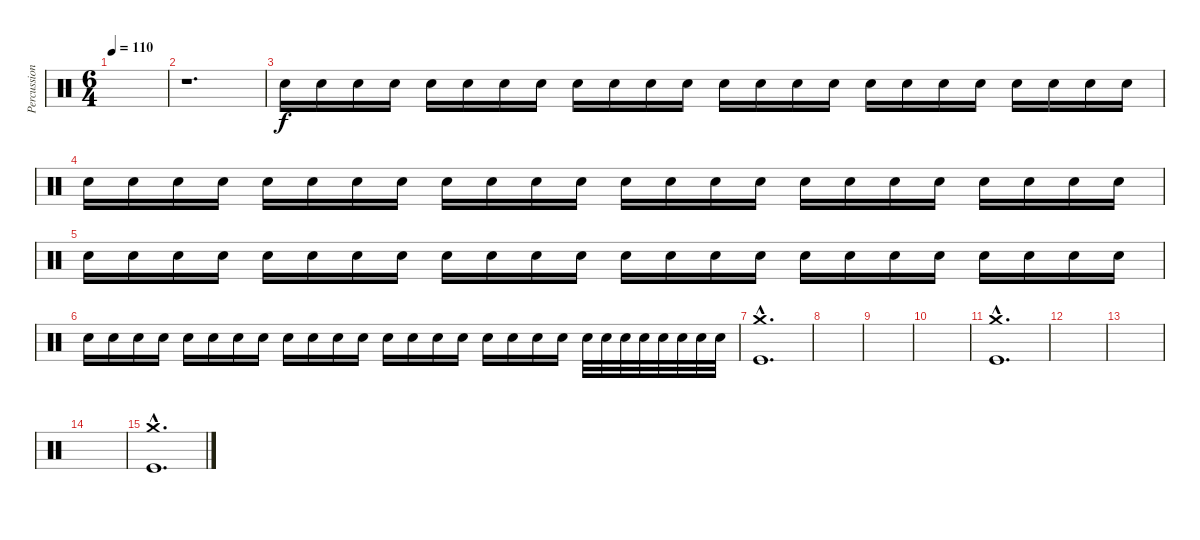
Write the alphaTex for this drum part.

\track ("Percussion" "Percussion") {instrument percussion}
\staff {score}
\articulation defaults
\ts (6 4)
\tempo 110
\clef neutral
\ks c
|
r.1{d volume 0} |
"Electric Snare (hit)".16{volume 4} "Electric Snare (hit)".16 "Electric Snare (hit)".16 "Electric Snare (hit)".16 "Electric Snare (hit)".16 "Electric Snare (hit)".16 "Electric Snare (hit)".16 "Electric Snare (hit)".16 "Electric Snare (hit)".16 "Electric Snare (hit)".16 "Electric Snare (hit)".16 "Electric Snare (hit)".16 "Electric Snare (hit)".16 "Electric Snare (hit)".16 "Electric Snare (hit)".16 "Electric Snare (hit)".16 "Electric Snare (hit)".16 "Electric Snare (hit)".16 "Electric Snare (hit)".16 "Electric Snare (hit)".16 "Electric Snare (hit)".16 "Electric Snare (hit)".16 "Electric Snare (hit)".16 "Electric Snare (hit)".16 |
"Electric Snare (hit)".16{volume 8} "Electric Snare (hit)".16 "Electric Snare (hit)".16 "Electric Snare (hit)".16 "Electric Snare (hit)".16 "Electric Snare (hit)".16 "Electric Snare (hit)".16 "Electric Snare (hit)".16 "Electric Snare (hit)".16 "Electric Snare (hit)".16 "Electric Snare (hit)".16 "Electric Snare (hit)".16 "Electric Snare (hit)".16 "Electric Snare (hit)".16 "Electric Snare (hit)".16 "Electric Snare (hit)".16 "Electric Snare (hit)".16 "Electric Snare (hit)".16 "Electric Snare (hit)".16 "Electric Snare (hit)".16 "Electric Snare (hit)".16 "Electric Snare (hit)".16 "Electric Snare (hit)".16 "Electric Snare (hit)".16 |
"Electric Snare (hit)".16{volume 10} "Electric Snare (hit)".16 "Electric Snare (hit)".16 "Electric Snare (hit)".16 "Electric Snare (hit)".16 "Electric Snare (hit)".16 "Electric Snare (hit)".16 "Electric Snare (hit)".16 "Electric Snare (hit)".16 "Electric Snare (hit)".16 "Electric Snare (hit)".16 "Electric Snare (hit)".16 "Electric Snare (hit)".16 "Electric Snare (hit)".16 "Electric Snare (hit)".16 "Electric Snare (hit)".16 "Electric Snare (hit)".16 "Electric Snare (hit)".16 "Electric Snare (hit)".16 "Electric Snare (hit)".16 "Electric Snare (hit)".16 "Electric Snare (hit)".16 "Electric Snare (hit)".16 "Electric Snare (hit)".16 |
"Electric Snare (hit)".16{volume 16} "Electric Snare (hit)".16 "Electric Snare (hit)".16 "Electric Snare (hit)".16 "Electric Snare (hit)".16 "Electric Snare (hit)".16 "Electric Snare (hit)".16 "Electric Snare (hit)".16 "Electric Snare (hit)".16 "Electric Snare (hit)".16 "Electric Snare (hit)".16 "Electric Snare (hit)".16 "Electric Snare (hit)".16 "Electric Snare (hit)".16 "Electric Snare (hit)".16 "Electric Snare (hit)".16 "Electric Snare (hit)".16 "Electric Snare (hit)".16 "Electric Snare (hit)".16 "Electric Snare (hit)".16 "Electric Snare (hit)".32 "Electric Snare (hit)".32 "Electric Snare (hit)".32 "Electric Snare (hit)".32 "Electric Snare (hit)".32 "Electric Snare (hit)".32 "Electric Snare (hit)".32 "Electric Snare (hit)".32 |
("Crash medium (hit)"{hac} "Kick (hit)"{hac}).1{d} |
|
|
|
("Crash medium (hit)"{hac} "Kick (hit)"{hac}).1{d} |
|
|
|
("Crash medium (hit)"{hac} "Kick (hit)"{hac}).1{d}
